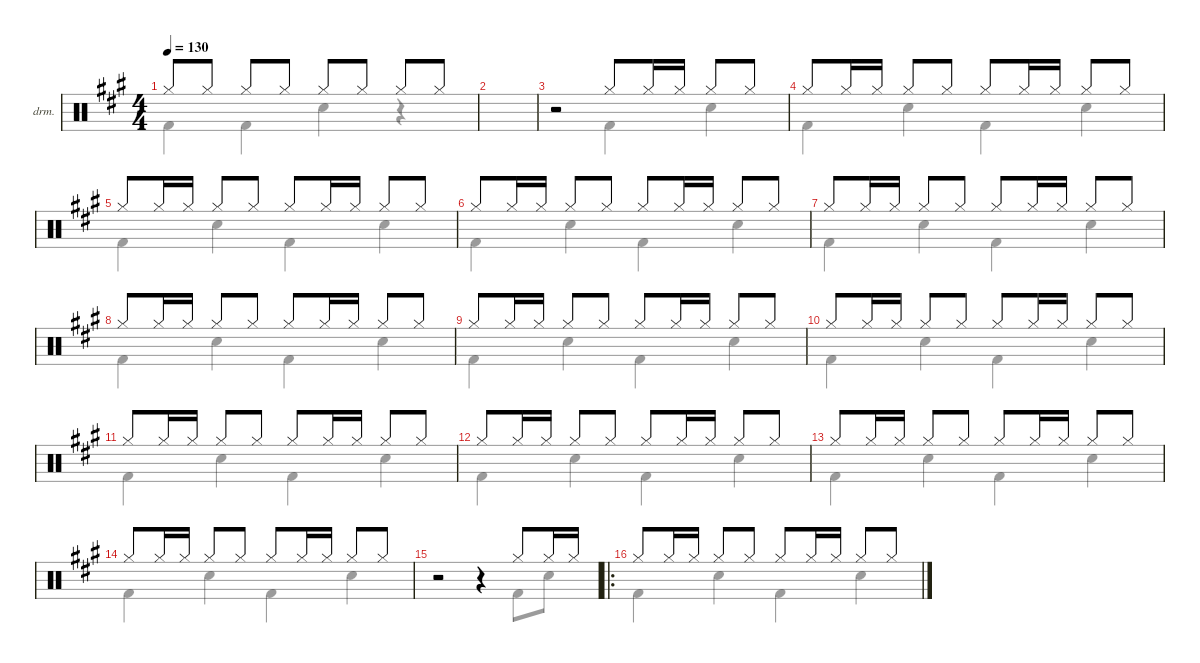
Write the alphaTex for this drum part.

\defaultSystemsLayout 4
\hideDynamics
\bracketExtendMode nobrackets
\firstSystemTrackNameOrientation horizontal
\otherSystemsTrackNameOrientation horizontal
\track ("  " "drm.") {instrument percussion}
\staff {score}
\articulation defaults
\voice
\ts (4 4)
\tempo 130
\clef neutral
\ks f#minor "Hi-Hat (closed)"{acc forcenatural}.8{dy mf beam Up} "Hi-Hat (closed)"{acc forcenatural}.8{beam Up} "Hi-Hat (closed)"{acc forcenatural}.8{beam Up} "Hi-Hat (closed)"{acc forcenatural}.8{beam Up} "Hi-Hat (closed)"{acc forcenatural}.8{beam Up} "Hi-Hat (closed)"{acc forcenatural}.8{beam Up} "Hi-Hat (closed)"{acc forcenatural}.8{beam Up} "Hi-Hat (closed)"{acc forcenatural}.8{beam Up}
|
|
r.2{beam Up} "Hi-Hat (closed)"{acc forcenatural}.8{beam Up} "Hi-Hat (closed)"{acc forcenatural}.16{beam Up} "Hi-Hat (closed)"{acc forcenatural}.16{beam Up} "Hi-Hat (closed)"{acc forcenatural}.8{beam Up} "Hi-Hat (closed)"{acc forcenatural}.8{beam Up} |
"Hi-Hat (closed)"{acc forcenatural}.8{beam Up} "Hi-Hat (closed)"{acc forcenatural}.16{beam Up} "Hi-Hat (closed)"{acc forcenatural}.16{beam Up} "Hi-Hat (closed)"{acc forcenatural}.8{beam Up} "Hi-Hat (closed)"{acc forcenatural}.8{beam Up} "Hi-Hat (closed)"{acc forcenatural}.8{beam Up} "Hi-Hat (closed)"{acc forcenatural}.16{beam Up} "Hi-Hat (closed)"{acc forcenatural}.16{beam Up} "Hi-Hat (closed)"{acc forcenatural}.8{beam Up} "Hi-Hat (closed)"{acc forcenatural}.8{beam Up} |
"Hi-Hat (closed)"{acc forcenatural}.8{beam Up} "Hi-Hat (closed)"{acc forcenatural}.16{beam Up} "Hi-Hat (closed)"{acc forcenatural}.16{beam Up} "Hi-Hat (closed)"{acc forcenatural}.8{beam Up} "Hi-Hat (closed)"{acc forcenatural}.8{beam Up} "Hi-Hat (closed)"{acc forcenatural}.8{beam Up} "Hi-Hat (closed)"{acc forcenatural}.16{beam Up} "Hi-Hat (closed)"{acc forcenatural}.16{beam Up} "Hi-Hat (closed)"{acc forcenatural}.8{beam Up} "Hi-Hat (closed)"{acc forcenatural}.8{beam Up} |
"Hi-Hat (closed)"{acc forcenatural}.8{beam Up} "Hi-Hat (closed)"{acc forcenatural}.16{beam Up} "Hi-Hat (closed)"{acc forcenatural}.16{beam Up} "Hi-Hat (closed)"{acc forcenatural}.8{beam Up} "Hi-Hat (closed)"{acc forcenatural}.8{beam Up} "Hi-Hat (closed)"{acc forcenatural}.8{beam Up} "Hi-Hat (closed)"{acc forcenatural}.16{beam Up} "Hi-Hat (closed)"{acc forcenatural}.16{beam Up} "Hi-Hat (closed)"{acc forcenatural}.8{beam Up} "Hi-Hat (closed)"{acc forcenatural}.8{beam Up} |
"Hi-Hat (closed)"{acc forcenatural}.8{beam Up} "Hi-Hat (closed)"{acc forcenatural}.16{beam Up} "Hi-Hat (closed)"{acc forcenatural}.16{beam Up} "Hi-Hat (closed)"{acc forcenatural}.8{beam Up} "Hi-Hat (closed)"{acc forcenatural}.8{beam Up} "Hi-Hat (closed)"{acc forcenatural}.8{beam Up} "Hi-Hat (closed)"{acc forcenatural}.16{beam Up} "Hi-Hat (closed)"{acc forcenatural}.16{beam Up} "Hi-Hat (closed)"{acc forcenatural}.8{beam Up} "Hi-Hat (closed)"{acc forcenatural}.8{beam Up} |
"Hi-Hat (closed)"{acc forcenatural}.8{beam Up} "Hi-Hat (closed)"{acc forcenatural}.16{beam Up} "Hi-Hat (closed)"{acc forcenatural}.16{beam Up} "Hi-Hat (closed)"{acc forcenatural}.8{beam Up} "Hi-Hat (closed)"{acc forcenatural}.8{beam Up} "Hi-Hat (closed)"{acc forcenatural}.8{beam Up} "Hi-Hat (closed)"{acc forcenatural}.16{beam Up} "Hi-Hat (closed)"{acc forcenatural}.16{beam Up} "Hi-Hat (closed)"{acc forcenatural}.8{beam Up} "Hi-Hat (closed)"{acc forcenatural}.8{beam Up} |
"Hi-Hat (closed)"{acc forcenatural}.8{beam Up} "Hi-Hat (closed)"{acc forcenatural}.16{beam Up} "Hi-Hat (closed)"{acc forcenatural}.16{beam Up} "Hi-Hat (closed)"{acc forcenatural}.8{beam Up} "Hi-Hat (closed)"{acc forcenatural}.8{beam Up} "Hi-Hat (closed)"{acc forcenatural}.8{beam Up} "Hi-Hat (closed)"{acc forcenatural}.16{beam Up} "Hi-Hat (closed)"{acc forcenatural}.16{beam Up} "Hi-Hat (closed)"{acc forcenatural}.8{beam Up} "Hi-Hat (closed)"{acc forcenatural}.8{beam Up} |
"Hi-Hat (closed)"{acc forcenatural}.8{beam Up} "Hi-Hat (closed)"{acc forcenatural}.16{beam Up} "Hi-Hat (closed)"{acc forcenatural}.16{beam Up} "Hi-Hat (closed)"{acc forcenatural}.8{beam Up} "Hi-Hat (closed)"{acc forcenatural}.8{beam Up} "Hi-Hat (closed)"{acc forcenatural}.8{beam Up} "Hi-Hat (closed)"{acc forcenatural}.16{beam Up} "Hi-Hat (closed)"{acc forcenatural}.16{beam Up} "Hi-Hat (closed)"{acc forcenatural}.8{beam Up} "Hi-Hat (closed)"{acc forcenatural}.8{beam Up} |
"Hi-Hat (closed)"{acc forcenatural}.8{beam Up} "Hi-Hat (closed)"{acc forcenatural}.16{beam Up} "Hi-Hat (closed)"{acc forcenatural}.16{beam Up} "Hi-Hat (closed)"{acc forcenatural}.8{beam Up} "Hi-Hat (closed)"{acc forcenatural}.8{beam Up} "Hi-Hat (closed)"{acc forcenatural}.8{beam Up} "Hi-Hat (closed)"{acc forcenatural}.16{beam Up} "Hi-Hat (closed)"{acc forcenatural}.16{beam Up} "Hi-Hat (closed)"{acc forcenatural}.8{beam Up} "Hi-Hat (closed)"{acc forcenatural}.8{beam Up} |
"Hi-Hat (closed)"{acc forcenatural}.8{beam Up} "Hi-Hat (closed)"{acc forcenatural}.16{beam Up} "Hi-Hat (closed)"{acc forcenatural}.16{beam Up} "Hi-Hat (closed)"{acc forcenatural}.8{beam Up} "Hi-Hat (closed)"{acc forcenatural}.8{beam Up} "Hi-Hat (closed)"{acc forcenatural}.8{beam Up} "Hi-Hat (closed)"{acc forcenatural}.16{beam Up} "Hi-Hat (closed)"{acc forcenatural}.16{beam Up} "Hi-Hat (closed)"{acc forcenatural}.8{beam Up} "Hi-Hat (closed)"{acc forcenatural}.8{beam Up} |
"Hi-Hat (closed)"{acc forcenatural}.8{beam Up} "Hi-Hat (closed)"{acc forcenatural}.16{beam Up} "Hi-Hat (closed)"{acc forcenatural}.16{beam Up} "Hi-Hat (closed)"{acc forcenatural}.8{beam Up} "Hi-Hat (closed)"{acc forcenatural}.8{beam Up} "Hi-Hat (closed)"{acc forcenatural}.8{beam Up} "Hi-Hat (closed)"{acc forcenatural}.16{beam Up} "Hi-Hat (closed)"{acc forcenatural}.16{beam Up} "Hi-Hat (closed)"{acc forcenatural}.8{beam Up} "Hi-Hat (closed)"{acc forcenatural}.8{beam Up} |
"Hi-Hat (closed)"{acc forcenatural}.8{beam Up} "Hi-Hat (closed)"{acc forcenatural}.16{beam Up} "Hi-Hat (closed)"{acc forcenatural}.16{beam Up} "Hi-Hat (closed)"{acc forcenatural}.8{beam Up} "Hi-Hat (closed)"{acc forcenatural}.8{beam Up} "Hi-Hat (closed)"{acc forcenatural}.8{beam Up} "Hi-Hat (closed)"{acc forcenatural}.16{beam Up} "Hi-Hat (closed)"{acc forcenatural}.16{beam Up} "Hi-Hat (closed)"{acc forcenatural}.8{beam Up} "Hi-Hat (closed)"{acc forcenatural}.8{beam Up} |
r.2{beam Up} r.4{beam Up} "Hi-Hat (closed)"{acc forcenatural}.8{beam Up} "Hi-Hat (closed)"{acc forcenatural}.16{beam Up} "Hi-Hat (closed)"{acc forcenatural}.16{beam Up} |
\ro "Hi-Hat (closed)"{acc forcenatural}.8{beam Up} "Hi-Hat (closed)"{acc forcenatural}.16{beam Up} "Hi-Hat (closed)"{acc forcenatural}.16{beam Up} "Hi-Hat (closed)"{acc forcenatural}.8{beam Up} "Hi-Hat (closed)"{acc forcenatural}.8{beam Up} "Hi-Hat (closed)"{acc forcenatural}.8{beam Up} "Hi-Hat (closed)"{acc forcenatural}.16{beam Up} "Hi-Hat (closed)"{acc forcenatural}.16{beam Up} "Hi-Hat (closed)"{acc forcenatural}.8{beam Up} "Hi-Hat (closed)"{acc forcenatural}.8{beam Up}
\voice
\clef neutral
\ottava regular
\simile none
\ks f#minor "Kick (hit) 2"{acc forcenatural}.4{dy mf beam Down} "Kick (hit) 2"{acc forcenatural}.4{beam Down} "Snare (hit) 2"{acc forcenatural}.4{beam Down}
r.4{beam Down} |
|
r.2{beam Down} "Kick (hit) 2"{acc forcenatural}.4{beam Down} "Snare (hit) 2"{acc forcenatural}.4{beam Down} |
"Kick (hit) 2"{acc forcenatural}.4{beam Down} "Snare (hit) 2"{acc forcenatural}.4{beam Down} "Kick (hit) 2"{acc forcenatural}.4{beam Down} "Snare (hit) 2"{acc forcenatural}.4{beam Down} |
"Kick (hit) 2"{acc forcenatural}.4{beam Down} "Snare (hit) 2"{acc forcenatural}.4{beam Down} "Kick (hit) 2"{acc forcenatural}.4{beam Down} "Snare (hit) 2"{acc forcenatural}.4{beam Down} |
"Kick (hit) 2"{acc forcenatural}.4{beam Down} "Snare (hit) 2"{acc forcenatural}.4{beam Down} "Kick (hit) 2"{acc forcenatural}.4{beam Down} "Snare (hit) 2"{acc forcenatural}.4{beam Down} |
"Kick (hit) 2"{acc forcenatural}.4{beam Down} "Snare (hit) 2"{acc forcenatural}.4{beam Down} "Kick (hit) 2"{acc forcenatural}.4{beam Down} "Snare (hit) 2"{acc forcenatural}.4{beam Down} |
"Kick (hit) 2"{acc forcenatural}.4{beam Down} "Snare (hit) 2"{acc forcenatural}.4{beam Down} "Kick (hit) 2"{acc forcenatural}.4{beam Down} "Snare (hit) 2"{acc forcenatural}.4{beam Down} |
"Kick (hit) 2"{acc forcenatural}.4{beam Down} "Snare (hit) 2"{acc forcenatural}.4{beam Down} "Kick (hit) 2"{acc forcenatural}.4{beam Down} "Snare (hit) 2"{acc forcenatural}.4{beam Down} |
"Kick (hit) 2"{acc forcenatural}.4{beam Down} "Snare (hit) 2"{acc forcenatural}.4{beam Down} "Kick (hit) 2"{acc forcenatural}.4{beam Down} "Snare (hit) 2"{acc forcenatural}.4{beam Down} |
"Kick (hit) 2"{acc forcenatural}.4{beam Down} "Snare (hit) 2"{acc forcenatural}.4{beam Down} "Kick (hit) 2"{acc forcenatural}.4{beam Down} "Snare (hit) 2"{acc forcenatural}.4{beam Down} |
"Kick (hit) 2"{acc forcenatural}.4{beam Down} "Snare (hit) 2"{acc forcenatural}.4{beam Down} "Kick (hit) 2"{acc forcenatural}.4{beam Down} "Snare (hit) 2"{acc forcenatural}.4{beam Down} |
"Kick (hit) 2"{acc forcenatural}.4{beam Down} "Snare (hit) 2"{acc forcenatural}.4{beam Down} "Kick (hit) 2"{acc forcenatural}.4{beam Down} "Snare (hit) 2"{acc forcenatural}.4{beam Down} |
"Kick (hit) 2"{acc forcenatural}.4{beam Down} "Snare (hit) 2"{acc forcenatural}.4{beam Down} "Kick (hit) 2"{acc forcenatural}.4{beam Down} "Snare (hit) 2"{acc forcenatural}.4{beam Down} |
r.2{beam Down} r.4{beam Down} "Kick (hit) 2"{acc forcenatural}.8{beam Down} "Snare (hit) 2"{acc forcenatural}.8{beam Down} |
"Kick (hit) 2"{acc forcenatural}.4{beam Down} "Snare (hit) 2"{acc forcenatural}.4{beam Down} "Kick (hit) 2"{acc forcenatural}.4{beam Down} "Snare (hit) 2"{acc forcenatural}.4{beam Down}
